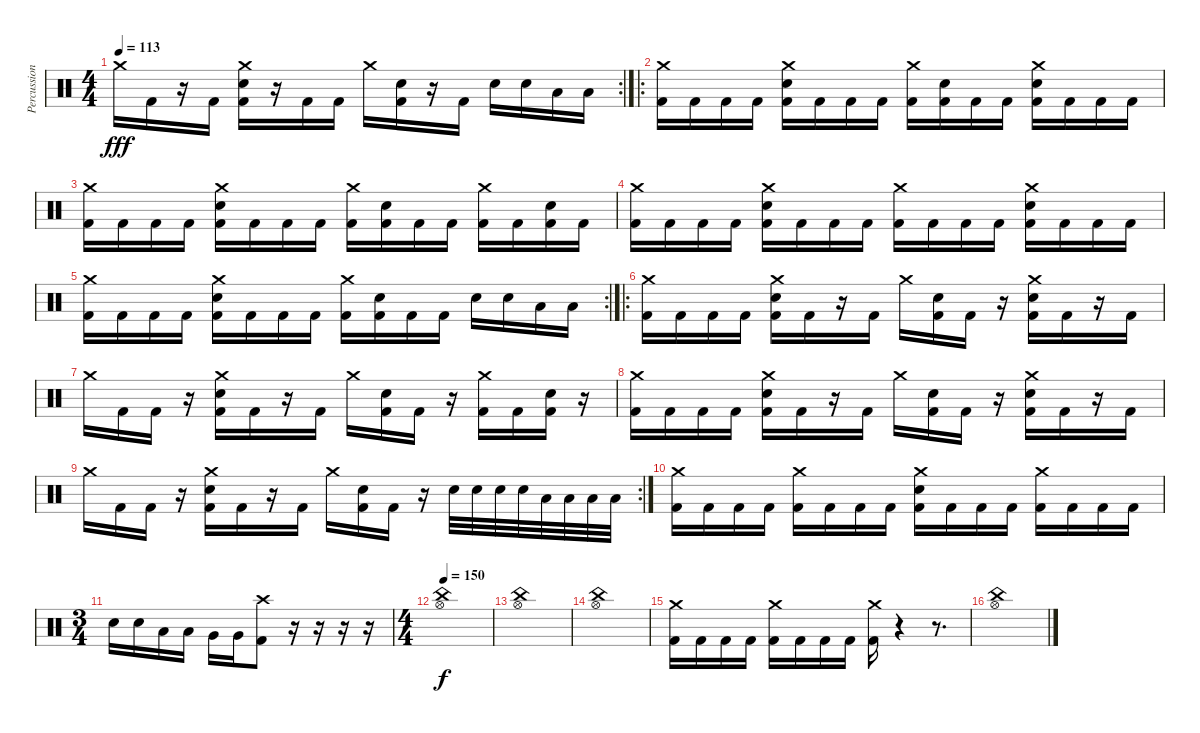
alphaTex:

\track ("Percussion" "Percussion") {instrument percussion}
\staff {score}
\articulation defaults
\rc 2
\ts (4 4)
\tempo 113
\clef neutral
\ks c "Crash medium (hit)".16{dy fff} "Kick (hit) 2".16
r.16 "Kick (hit) 2".16 ("Crash medium (hit)" "Electric Snare (hit)" "Kick (hit) 2").16 r.16 "Kick (hit) 2".16 "Kick (hit) 2".16 "Crash medium (hit)".16 ("Electric Snare (hit)" "Kick (hit) 2").16 r.16 "Kick (hit) 2".16 "Electric Snare (hit)".16 "Electric Snare (hit)".16 "Low Tom (hit)".16 "Low Tom (hit)".16 |
\ro
("Crash medium (hit)" "Kick (hit) 2").16 "Kick (hit) 2".16 "Kick (hit) 2".16 "Kick (hit) 2".16 ("Crash medium (hit)" "Electric Snare (hit)" "Kick (hit) 2").16 "Kick (hit) 2".16 "Kick (hit) 2".16 "Kick (hit) 2".16 ("Crash medium (hit)" "Kick (hit) 2").16 ("Electric Snare (hit)" "Kick (hit) 2").16 "Kick (hit) 2".16 "Kick (hit) 2".16 ("Crash medium (hit)" "Electric Snare (hit)" "Kick (hit) 2").16 "Kick (hit) 2".16 "Kick (hit) 2".16 "Kick (hit) 2".16 |
("Crash medium (hit)" "Kick (hit) 2").16 "Kick (hit) 2".16 "Kick (hit) 2".16 "Kick (hit) 2".16 ("Crash medium (hit)" "Electric Snare (hit)" "Kick (hit) 2").16 "Kick (hit) 2".16 "Kick (hit) 2".16 "Kick (hit) 2".16 ("Crash medium (hit)" "Kick (hit) 2").16 ("Electric Snare (hit)" "Kick (hit) 2").16 "Kick (hit) 2".16 "Kick (hit) 2".16 ("Crash medium (hit)" "Kick (hit) 2").16 "Kick (hit) 2".16 ("Electric Snare (hit)" "Kick (hit) 2").16 "Kick (hit) 2".16 |
("Crash medium (hit)" "Kick (hit) 2").16 "Kick (hit) 2".16 "Kick (hit) 2".16 "Kick (hit) 2".16 ("Crash medium (hit)" "Electric Snare (hit)" "Kick (hit) 2").16 "Kick (hit) 2".16 "Kick (hit) 2".16 "Kick (hit) 2".16 ("Crash medium (hit)" "Kick (hit) 2").16 "Kick (hit) 2".16 "Kick (hit) 2".16 "Kick (hit) 2".16 ("Crash medium (hit)" "Electric Snare (hit)" "Kick (hit) 2").16 "Kick (hit) 2".16 "Kick (hit) 2".16 "Kick (hit) 2".16 |
\rc 2
("Crash medium (hit)" "Kick (hit) 2").16 "Kick (hit) 2".16 "Kick (hit) 2".16 "Kick (hit) 2".16 ("Crash medium (hit)" "Electric Snare (hit)" "Kick (hit) 2").16 "Kick (hit) 2".16 "Kick (hit) 2".16 "Kick (hit) 2".16 ("Crash medium (hit)" "Kick (hit) 2").16 ("Electric Snare (hit)" "Kick (hit) 2").16 "Kick (hit) 2".16 "Kick (hit) 2".16 "Electric Snare (hit)".16 "Electric Snare (hit)".16 "Low Tom (hit)".16 "Low Tom (hit)".16 |
\ro
("Crash medium (hit)" "Kick (hit) 2").16 "Kick (hit) 2".16 "Kick (hit) 2".16 "Kick (hit) 2".16 ("Crash medium (hit)" "Electric Snare (hit)" "Kick (hit) 2").16 "Kick (hit) 2".16 r.16 "Kick (hit) 2".16 "Crash medium (hit)".16 ("Electric Snare (hit)" "Kick (hit) 2").16 "Kick (hit) 2".16 r.16 ("Crash medium (hit)" "Electric Snare (hit)" "Kick (hit) 2").16 "Kick (hit) 2".16 r.16 "Kick (hit) 2".16 |
"Crash medium (hit)".16 "Kick (hit) 2".16 "Kick (hit) 2".16 r.16 ("Crash medium (hit)" "Electric Snare (hit)" "Kick (hit) 2").16 "Kick (hit) 2".16 r.16 "Kick (hit) 2".16 "Crash medium (hit)".16 ("Electric Snare (hit)" "Kick (hit) 2").16 "Kick (hit) 2".16 r.16 ("Crash medium (hit)" "Kick (hit) 2").16 "Kick (hit) 2".16 ("Electric Snare (hit)" "Kick (hit) 2").16 r.16 |
("Crash medium (hit)" "Kick (hit) 2").16 "Kick (hit) 2".16 "Kick (hit) 2".16 "Kick (hit) 2".16 ("Crash medium (hit)" "Electric Snare (hit)" "Kick (hit) 2").16 "Kick (hit) 2".16 r.16 "Kick (hit) 2".16 "Crash medium (hit)".16 ("Electric Snare (hit)" "Kick (hit) 2").16 "Kick (hit) 2".16 r.16 ("Crash medium (hit)" "Electric Snare (hit)" "Kick (hit) 2").16 "Kick (hit) 2".16 r.16 "Kick (hit) 2".16 |
\rc 2 "Crash medium (hit)".16 "Kick (hit) 2".16 "Kick (hit) 2".16
r.16 ("Crash medium (hit)" "Electric Snare (hit)" "Kick (hit) 2").16 "Kick (hit) 2".16 r.16 "Kick (hit) 2".16 "Crash medium (hit)".16 ("Electric Snare (hit)" "Kick (hit) 2").16 "Kick (hit) 2".16 r.16 "Electric Snare (hit)".32 "Electric Snare (hit)".32 "Electric Snare (hit)".32 "Electric Snare (hit)".32 "Low Tom (hit)".32 "Low Tom (hit)".32 "Low Tom (hit)".32 "Low Tom (hit)".32 |
("Crash medium (hit)" "Kick (hit) 2").16 "Kick (hit) 2".16 "Kick (hit) 2".16 "Kick (hit) 2".16 ("Crash medium (hit)" "Kick (hit) 2").16 "Kick (hit) 2".16 "Kick (hit) 2".16 "Kick (hit) 2".16 ("Crash medium (hit)" "Electric Snare (hit)" "Kick (hit) 2").16 "Kick (hit) 2".16 "Kick (hit) 2".16 "Kick (hit) 2".16 ("Crash medium (hit)" "Kick (hit) 2").16 "Kick (hit) 2".16 "Kick (hit) 2".16 "Kick (hit) 2".16 |
\ts (3 4)
"Electric Snare (hit)".16 "Electric Snare (hit)".16 "Low Tom (hit)".16 "Low Tom (hit)".16 "Very Low Tom (hit)".16 "Very Low Tom (hit)".16 ("Crash high (hit)" "Kick (hit) 2").8 r.16 r.16 r.16 r.16 |
\ts (4 4)
\tempo 150
("China (hit)" "Hi-Hat (open)").1{dy f} |
("China (hit)" "Hi-Hat (open)").1 |
("China (hit)" "Hi-Hat (open)").1 |
("Crash medium (hit)" "Kick (hit) 2").16 "Kick (hit) 2".16 "Kick (hit) 2".16 "Kick (hit) 2".16 ("Crash medium (hit)" "Kick (hit) 2").16 "Kick (hit) 2".16 "Kick (hit) 2".16 "Kick (hit) 2".16 ("Crash medium (hit)" "Kick (hit) 2").16 r.4 r.8{d} |
("China (hit)" "Hi-Hat (open)").1
